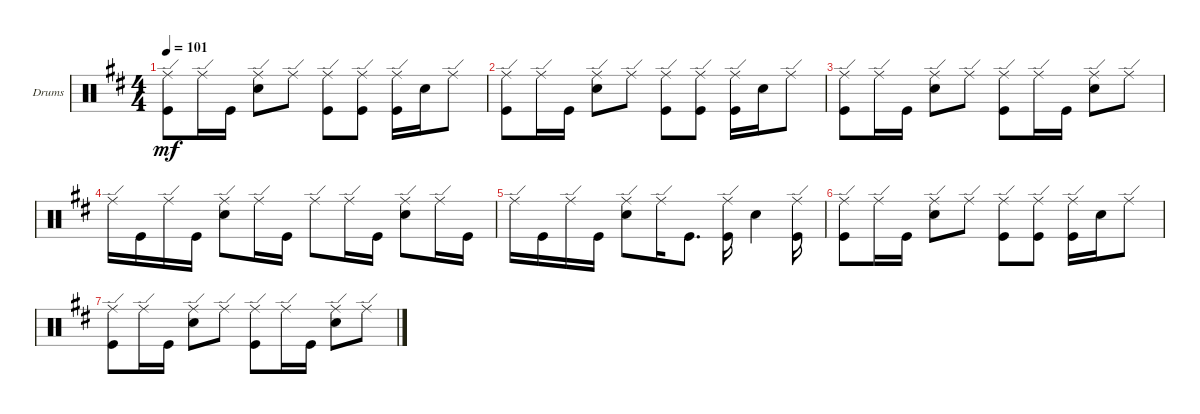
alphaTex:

\bracketExtendMode groupsimilarinstruments
\firstSystemTrackNameOrientation horizontal
\otherSystemsTrackNameOrientation horizontal
\track ("Drumkit" "Drums") {instrument percussion}
\staff {score}
\articulation defaults
\ts (4 4)
\tempo 101
\clef neutral
\scale
0.333333
\ks d
("Kick (hit)" "Ride (edge)").8{dy mf} "Ride (edge)".16 "Kick (hit)".16 ("Snare (hit) 2" "Ride (edge)").8 "Ride (edge)".8 ("Kick (hit)" "Ride (edge)").8 ("Kick (hit)" "Ride (edge)").8 ("Kick (hit)" "Ride (edge)").16 "Snare (hit) 2".16 "Ride (edge)".8 |
\scale
0.333333 ("Kick (hit)" "Ride (edge)").8 "Ride (edge)".16 "Kick (hit)".16 ("Snare (hit) 2" "Ride (edge)").8 "Ride (edge)".8 ("Kick (hit)" "Ride (edge)").8 ("Kick (hit)" "Ride (edge)").8 ("Kick (hit)" "Ride (edge)").16 "Snare (hit) 2".16 "Ride (edge)".8 |
\scale
0.333333 ("Kick (hit)" "Ride (edge)").8 "Ride (edge)".16 "Kick (hit)".16 ("Snare (hit) 2" "Ride (edge)").8 "Ride (edge)".8 ("Kick (hit)" "Ride (edge)").8 "Ride (edge)".16 "Kick (hit)".16 ("Snare (hit) 2" "Ride (edge)").8 "Ride (edge)".8 |
\scale
0.333333 "Ride (edge)".16 "Kick (hit)".16 "Ride (edge)".16 "Kick (hit)".16 ("Snare (hit) 2" "Ride (edge)").8 "Ride (edge)".16 "Kick (hit)".16 "Ride (edge)".8 "Ride (edge)".16 "Kick (hit)".16 ("Snare (hit) 2" "Ride (edge)").8 "Ride (edge)".16 "Kick (hit)".16 |
\scale
0.333333 "Ride (edge)".16 "Kick (hit)".16 "Ride (edge)".16 "Kick (hit)".16 ("Snare (hit) 2" "Ride (edge)").8 "Ride (edge)".16 "Kick (hit)".8{d} ("Kick (hit)" "Ride (edge)").16 "Snare (hit) 2".4 ("Kick (hit)" "Ride (edge)").16 |
\scale
0.333333 ("Kick (hit)" "Ride (edge)").8 "Ride (edge)".16 "Kick (hit)".16 ("Snare (hit) 2" "Ride (edge)").8 "Ride (edge)".8 ("Kick (hit)" "Ride (edge)").8 ("Kick (hit)" "Ride (edge)").8 ("Kick (hit)" "Ride (edge)").16 "Snare (hit) 2".16 "Ride (edge)".8 |
("Kick (hit)" "Ride (edge)").8 "Ride (edge)".16 "Kick (hit)".16 ("Snare (hit) 2" "Ride (edge)").8 "Ride (edge)".8 ("Kick (hit)" "Ride (edge)").8 "Ride (edge)".16 "Kick (hit)".16 ("Snare (hit) 2" "Ride (edge)").8 "Ride (edge)".8
